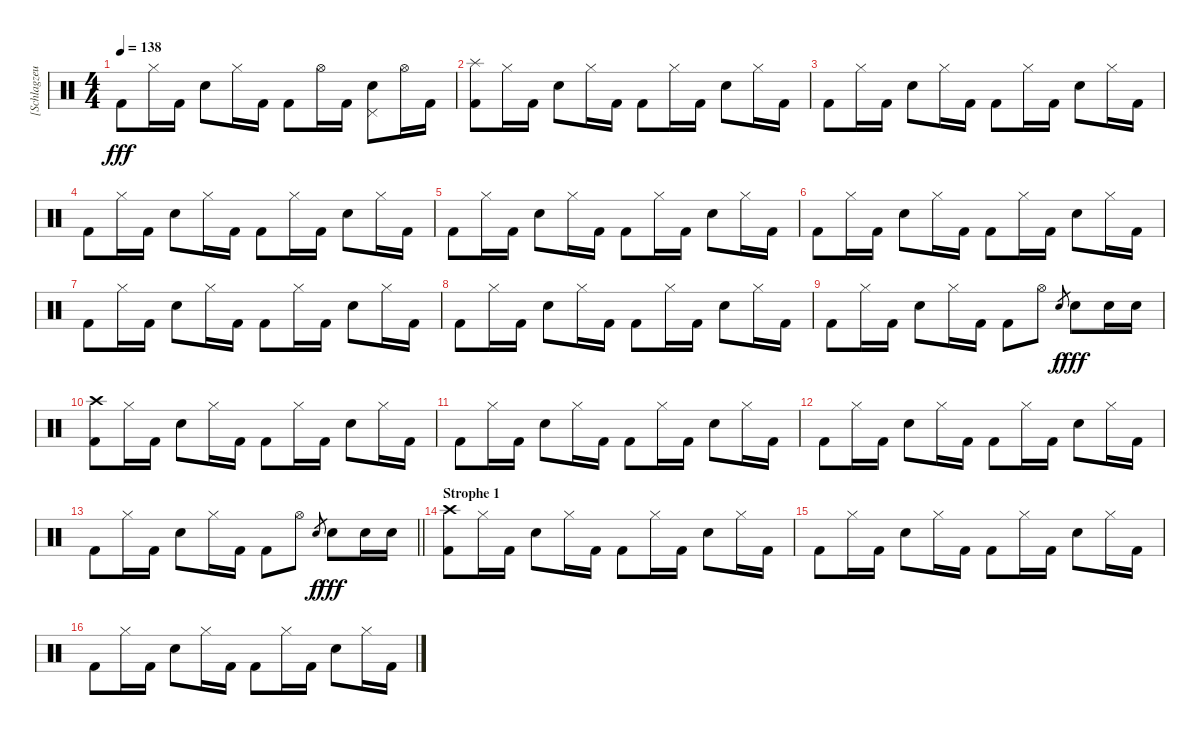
\track ("[Schlagzeug]" "[Schlagzeu") {instrument percussion}
\staff {score}
\articulation defaults
\ts (4 4)
\tempo 138
\clef neutral
\ks c "Kick (hit) 2".8{dy fff} "Hi-Hat (closed)".16 "Kick (hit) 2".16 "Electric Snare (hit)".8 "Hi-Hat (closed)".16 "Kick (hit) 2".16 "Kick (hit) 2".8 "Hi-Hat (open)".16 "Kick (hit) 2".16
("Pedal Hi-Hat (hit)" "Electric Snare (hit)").8 "Hi-Hat (open)".16 "Kick (hit) 2".16 |
("Splash (hit)" "Kick (hit) 2").8 "Hi-Hat (closed)".16 "Kick (hit) 2".16 "Electric Snare (hit)".8 "Hi-Hat (closed)".16 "Kick (hit) 2".16 "Kick (hit) 2".8 "Hi-Hat (closed)".16 "Kick (hit) 2".16 "Electric Snare (hit)".8 "Hi-Hat (closed)".16 "Kick (hit) 2".16 |
"Kick (hit) 2".8 "Hi-Hat (closed)".16 "Kick (hit) 2".16 "Electric Snare (hit)".8 "Hi-Hat (closed)".16 "Kick (hit) 2".16 "Kick (hit) 2".8 "Hi-Hat (closed)".16 "Kick (hit) 2".16 "Electric Snare (hit)".8 "Hi-Hat (closed)".16 "Kick (hit) 2".16 |
"Kick (hit) 2".8 "Hi-Hat (closed)".16 "Kick (hit) 2".16 "Electric Snare (hit)".8 "Hi-Hat (closed)".16 "Kick (hit) 2".16 "Kick (hit) 2".8 "Hi-Hat (closed)".16 "Kick (hit) 2".16 "Electric Snare (hit)".8 "Hi-Hat (closed)".16 "Kick (hit) 2".16 |
"Kick (hit) 2".8 "Hi-Hat (closed)".16 "Kick (hit) 2".16 "Electric Snare (hit)".8 "Hi-Hat (closed)".16 "Kick (hit) 2".16 "Kick (hit) 2".8 "Hi-Hat (closed)".16 "Kick (hit) 2".16 "Electric Snare (hit)".8 "Hi-Hat (closed)".16 "Kick (hit) 2".16 |
"Kick (hit) 2".8 "Hi-Hat (closed)".16 "Kick (hit) 2".16 "Electric Snare (hit)".8 "Hi-Hat (closed)".16 "Kick (hit) 2".16 "Kick (hit) 2".8 "Hi-Hat (closed)".16 "Kick (hit) 2".16 "Electric Snare (hit)".8 "Hi-Hat (closed)".16 "Kick (hit) 2".16 |
"Kick (hit) 2".8 "Hi-Hat (closed)".16 "Kick (hit) 2".16 "Electric Snare (hit)".8 "Hi-Hat (closed)".16 "Kick (hit) 2".16 "Kick (hit) 2".8 "Hi-Hat (closed)".16 "Kick (hit) 2".16 "Electric Snare (hit)".8 "Hi-Hat (closed)".16 "Kick (hit) 2".16 |
"Kick (hit) 2".8 "Hi-Hat (closed)".16 "Kick (hit) 2".16 "Electric Snare (hit)".8 "Hi-Hat (closed)".16 "Kick (hit) 2".16 "Kick (hit) 2".8 "Hi-Hat (closed)".16 "Kick (hit) 2".16 "Electric Snare (hit)".8 "Hi-Hat (closed)".16 "Kick (hit) 2".16 |
"Kick (hit) 2".8 "Hi-Hat (closed)".16 "Kick (hit) 2".16 "Electric Snare (hit)".8 "Hi-Hat (closed)".16 "Kick (hit) 2".16 "Kick (hit) 2".8 "Hi-Hat (open)".8 "Electric Snare (hit)".8{gr dy f} "Electric Snare (hit)".8{dy fff} "Electric Snare (hit)".16 "Electric Snare (hit)".16 |
("Crash high (hit)" "Kick (hit) 2").8 "Hi-Hat (closed)".16 "Kick (hit) 2".16 "Electric Snare (hit)".8 "Hi-Hat (closed)".16 "Kick (hit) 2".16 "Kick (hit) 2".8 "Hi-Hat (closed)".16 "Kick (hit) 2".16 "Electric Snare (hit)".8 "Hi-Hat (closed)".16 "Kick (hit) 2".16 |
"Kick (hit) 2".8 "Hi-Hat (closed)".16 "Kick (hit) 2".16 "Electric Snare (hit)".8 "Hi-Hat (closed)".16 "Kick (hit) 2".16 "Kick (hit) 2".8 "Hi-Hat (closed)".16 "Kick (hit) 2".16 "Electric Snare (hit)".8 "Hi-Hat (closed)".16 "Kick (hit) 2".16 |
"Kick (hit) 2".8 "Hi-Hat (closed)".16 "Kick (hit) 2".16 "Electric Snare (hit)".8 "Hi-Hat (closed)".16 "Kick (hit) 2".16 "Kick (hit) 2".8 "Hi-Hat (closed)".16 "Kick (hit) 2".16 "Electric Snare (hit)".8 "Hi-Hat (closed)".16 "Kick (hit) 2".16 |
\barLineRight lightlight "Kick (hit) 2".8 "Hi-Hat (closed)".16 "Kick (hit) 2".16 "Electric Snare (hit)".8 "Hi-Hat (closed)".16 "Kick (hit) 2".16 "Kick (hit) 2".8 "Hi-Hat (open)".8 "Electric Snare (hit)".8{gr dy f} "Electric Snare (hit)".8{dy fff} "Electric Snare (hit)".16 "Electric Snare (hit)".16
|
\section ("" "Strophe 1")
("Crash high (hit)" "Kick (hit) 2").8 "Hi-Hat (closed)".16 "Kick (hit) 2".16 "Electric Snare (hit)".8 "Hi-Hat (closed)".16 "Kick (hit) 2".16 "Kick (hit) 2".8 "Hi-Hat (closed)".16 "Kick (hit) 2".16 "Electric Snare (hit)".8 "Hi-Hat (closed)".16 "Kick (hit) 2".16 |
"Kick (hit) 2".8 "Hi-Hat (closed)".16 "Kick (hit) 2".16 "Electric Snare (hit)".8 "Hi-Hat (closed)".16 "Kick (hit) 2".16 "Kick (hit) 2".8 "Hi-Hat (closed)".16 "Kick (hit) 2".16 "Electric Snare (hit)".8 "Hi-Hat (closed)".16 "Kick (hit) 2".16 |
"Kick (hit) 2".8 "Hi-Hat (closed)".16 "Kick (hit) 2".16 "Electric Snare (hit)".8 "Hi-Hat (closed)".16 "Kick (hit) 2".16 "Kick (hit) 2".8 "Hi-Hat (closed)".16 "Kick (hit) 2".16 "Electric Snare (hit)".8 "Hi-Hat (closed)".16 "Kick (hit) 2".16
